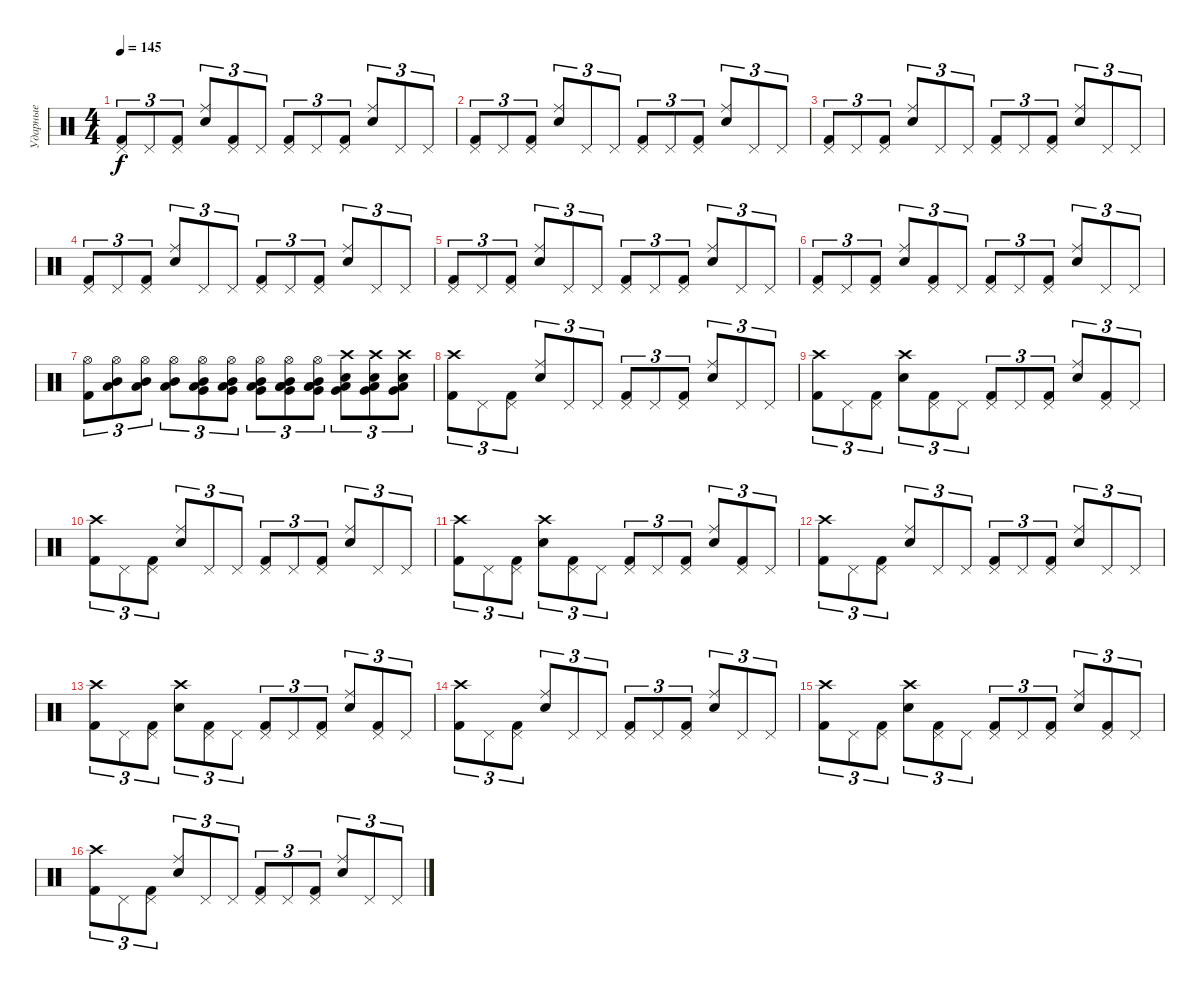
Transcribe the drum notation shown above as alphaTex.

\track ("Ударные" "Ударные") {instrument percussion}
\staff {score}
\articulation defaults
\ts (4 4)
\tempo 145
\clef neutral
\ks c
("Kick (hit) 2" "Pedal Hi-Hat (hit)").8{tu (3 2) dy f} "Pedal Hi-Hat (hit)".8{tu (3 2)} ("Kick (hit) 2" "Pedal Hi-Hat (hit)").8{tu (3 2)} ("Electric Snare (hit)" "Ride (middle)").8{tu (3 2)} ("Kick (hit) 2" "Pedal Hi-Hat (hit)").8{tu (3 2)} "Pedal Hi-Hat (hit)".8{tu (3 2)} ("Kick (hit) 2" "Pedal Hi-Hat (hit)").8{tu (3 2)} "Pedal Hi-Hat (hit)".8{tu (3 2)} ("Pedal Hi-Hat (hit)" "Kick (hit) 2").8{tu (3 2)} ("Electric Snare (hit)" "Ride (middle)").8{tu (3 2)} "Pedal Hi-Hat (hit)".8{tu (3 2)} "Pedal Hi-Hat (hit)".8{tu (3 2)} |
("Kick (hit) 2" "Pedal Hi-Hat (hit)").8{tu (3 2)} "Pedal Hi-Hat (hit)".8{tu (3 2)} ("Kick (hit) 2" "Pedal Hi-Hat (hit)").8{tu (3 2)} ("Electric Snare (hit)" "Ride (middle)").8{tu (3 2)} "Pedal Hi-Hat (hit)".8{tu (3 2)} "Pedal Hi-Hat (hit)".8{tu (3 2)} ("Kick (hit) 2" "Pedal Hi-Hat (hit)").8{tu (3 2)} "Pedal Hi-Hat (hit)".8{tu (3 2)} ("Pedal Hi-Hat (hit)" "Kick (hit) 2").8{tu (3 2)} ("Electric Snare (hit)" "Ride (middle)").8{tu (3 2)} "Pedal Hi-Hat (hit)".8{tu (3 2)} "Pedal Hi-Hat (hit)".8{tu (3 2)} |
("Kick (hit) 2" "Pedal Hi-Hat (hit)").8{tu (3 2)} "Pedal Hi-Hat (hit)".8{tu (3 2)} ("Kick (hit) 2" "Pedal Hi-Hat (hit)").8{tu (3 2)} ("Electric Snare (hit)" "Ride (middle)").8{tu (3 2)} "Pedal Hi-Hat (hit)".8{tu (3 2)} "Pedal Hi-Hat (hit)".8{tu (3 2)} ("Kick (hit) 2" "Pedal Hi-Hat (hit)").8{tu (3 2)} "Pedal Hi-Hat (hit)".8{tu (3 2)} ("Pedal Hi-Hat (hit)" "Kick (hit) 2").8{tu (3 2)} ("Electric Snare (hit)" "Ride (middle)").8{tu (3 2)} "Pedal Hi-Hat (hit)".8{tu (3 2)} "Pedal Hi-Hat (hit)".8{tu (3 2)} |
("Kick (hit) 2" "Pedal Hi-Hat (hit)").8{tu (3 2)} "Pedal Hi-Hat (hit)".8{tu (3 2)} ("Kick (hit) 2" "Pedal Hi-Hat (hit)").8{tu (3 2)} ("Electric Snare (hit)" "Ride (middle)").8{tu (3 2)} "Pedal Hi-Hat (hit)".8{tu (3 2)} "Pedal Hi-Hat (hit)".8{tu (3 2)} ("Kick (hit) 2" "Pedal Hi-Hat (hit)").8{tu (3 2)} "Pedal Hi-Hat (hit)".8{tu (3 2)} ("Pedal Hi-Hat (hit)" "Kick (hit) 2").8{tu (3 2)} ("Electric Snare (hit)" "Ride (middle)").8{tu (3 2)} "Pedal Hi-Hat (hit)".8{tu (3 2)} "Pedal Hi-Hat (hit)".8{tu (3 2)} |
("Kick (hit) 2" "Pedal Hi-Hat (hit)").8{tu (3 2)} "Pedal Hi-Hat (hit)".8{tu (3 2)} ("Kick (hit) 2" "Pedal Hi-Hat (hit)").8{tu (3 2)} ("Electric Snare (hit)" "Ride (middle)").8{tu (3 2)} "Pedal Hi-Hat (hit)".8{tu (3 2)} "Pedal Hi-Hat (hit)".8{tu (3 2)} ("Kick (hit) 2" "Pedal Hi-Hat (hit)").8{tu (3 2)} "Pedal Hi-Hat (hit)".8{tu (3 2)} ("Pedal Hi-Hat (hit)" "Kick (hit) 2").8{tu (3 2)} ("Electric Snare (hit)" "Ride (middle)").8{tu (3 2)} "Pedal Hi-Hat (hit)".8{tu (3 2)} "Pedal Hi-Hat (hit)".8{tu (3 2)} |
("Kick (hit) 2" "Pedal Hi-Hat (hit)").8{tu (3 2)} "Pedal Hi-Hat (hit)".8{tu (3 2)} ("Kick (hit) 2" "Pedal Hi-Hat (hit)").8{tu (3 2)} ("Electric Snare (hit)" "Ride (middle)").8{tu (3 2)} ("Kick (hit) 2" "Pedal Hi-Hat (hit)").8{tu (3 2)} "Pedal Hi-Hat (hit)".8{tu (3 2)} ("Kick (hit) 2" "Pedal Hi-Hat (hit)").8{tu (3 2)} "Pedal Hi-Hat (hit)".8{tu (3 2)} ("Pedal Hi-Hat (hit)" "Kick (hit) 2").8{tu (3 2)} ("Electric Snare (hit)" "Ride (middle)").8{tu (3 2)} "Pedal Hi-Hat (hit)".8{tu (3 2)} "Pedal Hi-Hat (hit)".8{tu (3 2)} |
("Kick (hit) 2" "Hi-Hat (open)").8{tu (3 2)} ("Low Tom (hit)" "Mid Tom (hit)" "Hi-Hat (open)").8{tu (3 2)} ("Mid Tom (hit)" "Low Tom (hit)" "Hi-Hat (open)").8{tu (3 2)} ("Low Tom (hit)" "Mid Tom (hit)" "Hi-Hat (open)").8{tu (3 2)} ("Low Tom (hit)" "Mid Tom (hit)" "Very Low Tom (hit)" "Hi-Hat (open)").8{tu (3 2)} ("Low Tom (hit)" "Mid Tom (hit)" "Very Low Tom (hit)" "Hi-Hat (open)").8{tu (3 2)} ("Low Tom (hit)" "Mid Tom (hit)" "Very Low Tom (hit)" "Hi-Hat (open)").8{tu (3 2)} ("Low Tom (hit)" "Very Low Tom (hit)" "Low Floor Tom (hit)" "Mid Tom (hit)" "Hi-Hat (open)").8{tu (3 2)} ("Low Floor Tom (hit)" "Very Low Tom (hit)" "Low Tom (hit)" "Mid Tom (hit)" "Hi-Hat (open)").8{tu (3 2)} ("Electric Snare (hit)" "Very Low Tom (hit)" "Low Tom (hit)" "Crash high (hit)").8{tu (3 2)} ("Electric Snare (hit)" "Very Low Tom (hit)" "Low Tom (hit)" "Crash high (hit)").8{tu (3 2)} ("Electric Snare (hit)" "Very Low Tom (hit)" "Low Tom (hit)" "Crash high (hit)").8{tu (3 2)} |
("Kick (hit) 2" "Crash high (hit)").8{tu (3 2)} "Pedal Hi-Hat (hit)".8{tu (3 2)} ("Kick (hit) 2" "Pedal Hi-Hat (hit)").8{tu (3 2)} ("Electric Snare (hit)" "Ride (middle)").8{tu (3 2)} "Pedal Hi-Hat (hit)".8{tu (3 2)} "Pedal Hi-Hat (hit)".8{tu (3 2)} ("Kick (hit) 2" "Pedal Hi-Hat (hit)").8{tu (3 2)} "Pedal Hi-Hat (hit)".8{tu (3 2)} ("Pedal Hi-Hat (hit)" "Kick (hit) 2").8{tu (3 2)} ("Electric Snare (hit)" "Ride (middle)").8{tu (3 2)} "Pedal Hi-Hat (hit)".8{tu (3 2)} "Pedal Hi-Hat (hit)".8{tu (3 2)} |
("Kick (hit) 2" "Crash high (hit)").8{tu (3 2)} "Pedal Hi-Hat (hit)".8{tu (3 2)} ("Kick (hit) 2" "Pedal Hi-Hat (hit)").8{tu (3 2)} ("Electric Snare (hit)" "Crash high (hit)").8{tu (3 2)} ("Kick (hit) 2" "Pedal Hi-Hat (hit)").8{tu (3 2)} "Pedal Hi-Hat (hit)".8{tu (3 2)} ("Kick (hit) 2" "Pedal Hi-Hat (hit)").8{tu (3 2)} "Pedal Hi-Hat (hit)".8{tu (3 2)} ("Pedal Hi-Hat (hit)" "Kick (hit) 2").8{tu (3 2)} ("Electric Snare (hit)" "Ride (middle)").8{tu (3 2)} ("Kick (hit) 2" "Pedal Hi-Hat (hit)").8{tu (3 2)} "Pedal Hi-Hat (hit)".8{tu (3 2)} |
("Kick (hit) 2" "Crash high (hit)").8{tu (3 2)} "Pedal Hi-Hat (hit)".8{tu (3 2)} ("Kick (hit) 2" "Pedal Hi-Hat (hit)").8{tu (3 2)} ("Electric Snare (hit)" "Ride (middle)").8{tu (3 2)} "Pedal Hi-Hat (hit)".8{tu (3 2)} "Pedal Hi-Hat (hit)".8{tu (3 2)} ("Kick (hit) 2" "Pedal Hi-Hat (hit)").8{tu (3 2)} "Pedal Hi-Hat (hit)".8{tu (3 2)} ("Pedal Hi-Hat (hit)" "Kick (hit) 2").8{tu (3 2)} ("Electric Snare (hit)" "Ride (middle)").8{tu (3 2)} "Pedal Hi-Hat (hit)".8{tu (3 2)} "Pedal Hi-Hat (hit)".8{tu (3 2)} |
("Kick (hit) 2" "Crash high (hit)").8{tu (3 2)} "Pedal Hi-Hat (hit)".8{tu (3 2)} ("Kick (hit) 2" "Pedal Hi-Hat (hit)").8{tu (3 2)} ("Electric Snare (hit)" "Crash high (hit)").8{tu (3 2)} ("Kick (hit) 2" "Pedal Hi-Hat (hit)").8{tu (3 2)} "Pedal Hi-Hat (hit)".8{tu (3 2)} ("Kick (hit) 2" "Pedal Hi-Hat (hit)").8{tu (3 2)} "Pedal Hi-Hat (hit)".8{tu (3 2)} ("Pedal Hi-Hat (hit)" "Kick (hit) 2").8{tu (3 2)} ("Electric Snare (hit)" "Ride (middle)").8{tu (3 2)} ("Kick (hit) 2" "Pedal Hi-Hat (hit)").8{tu (3 2)} "Pedal Hi-Hat (hit)".8{tu (3 2)} |
("Kick (hit) 2" "Crash high (hit)").8{tu (3 2)} "Pedal Hi-Hat (hit)".8{tu (3 2)} ("Kick (hit) 2" "Pedal Hi-Hat (hit)").8{tu (3 2)} ("Electric Snare (hit)" "Ride (middle)").8{tu (3 2)} "Pedal Hi-Hat (hit)".8{tu (3 2)} "Pedal Hi-Hat (hit)".8{tu (3 2)} ("Kick (hit) 2" "Pedal Hi-Hat (hit)").8{tu (3 2)} "Pedal Hi-Hat (hit)".8{tu (3 2)} ("Pedal Hi-Hat (hit)" "Kick (hit) 2").8{tu (3 2)} ("Electric Snare (hit)" "Ride (middle)").8{tu (3 2)} "Pedal Hi-Hat (hit)".8{tu (3 2)} "Pedal Hi-Hat (hit)".8{tu (3 2)} |
("Kick (hit) 2" "Crash high (hit)").8{tu (3 2)} "Pedal Hi-Hat (hit)".8{tu (3 2)} ("Kick (hit) 2" "Pedal Hi-Hat (hit)").8{tu (3 2)} ("Electric Snare (hit)" "Crash high (hit)").8{tu (3 2)} ("Kick (hit) 2" "Pedal Hi-Hat (hit)").8{tu (3 2)} "Pedal Hi-Hat (hit)".8{tu (3 2)} ("Kick (hit) 2" "Pedal Hi-Hat (hit)").8{tu (3 2)} "Pedal Hi-Hat (hit)".8{tu (3 2)} ("Pedal Hi-Hat (hit)" "Kick (hit) 2").8{tu (3 2)} ("Electric Snare (hit)" "Ride (middle)").8{tu (3 2)} ("Kick (hit) 2" "Pedal Hi-Hat (hit)").8{tu (3 2)} "Pedal Hi-Hat (hit)".8{tu (3 2)} |
("Kick (hit) 2" "Crash high (hit)").8{tu (3 2)} "Pedal Hi-Hat (hit)".8{tu (3 2)} ("Kick (hit) 2" "Pedal Hi-Hat (hit)").8{tu (3 2)} ("Electric Snare (hit)" "Ride (middle)").8{tu (3 2)} "Pedal Hi-Hat (hit)".8{tu (3 2)} "Pedal Hi-Hat (hit)".8{tu (3 2)} ("Kick (hit) 2" "Pedal Hi-Hat (hit)").8{tu (3 2)} "Pedal Hi-Hat (hit)".8{tu (3 2)} ("Pedal Hi-Hat (hit)" "Kick (hit) 2").8{tu (3 2)} ("Electric Snare (hit)" "Ride (middle)").8{tu (3 2)} "Pedal Hi-Hat (hit)".8{tu (3 2)} "Pedal Hi-Hat (hit)".8{tu (3 2)} |
("Kick (hit) 2" "Crash high (hit)").8{tu (3 2)} "Pedal Hi-Hat (hit)".8{tu (3 2)} ("Kick (hit) 2" "Pedal Hi-Hat (hit)").8{tu (3 2)} ("Electric Snare (hit)" "Crash high (hit)").8{tu (3 2)} ("Kick (hit) 2" "Pedal Hi-Hat (hit)").8{tu (3 2)} "Pedal Hi-Hat (hit)".8{tu (3 2)} ("Kick (hit) 2" "Pedal Hi-Hat (hit)").8{tu (3 2)} "Pedal Hi-Hat (hit)".8{tu (3 2)} ("Pedal Hi-Hat (hit)" "Kick (hit) 2").8{tu (3 2)} ("Electric Snare (hit)" "Ride (middle)").8{tu (3 2)} ("Kick (hit) 2" "Pedal Hi-Hat (hit)").8{tu (3 2)} "Pedal Hi-Hat (hit)".8{tu (3 2)} |
("Kick (hit) 2" "Crash high (hit)").8{tu (3 2)} "Pedal Hi-Hat (hit)".8{tu (3 2)} ("Kick (hit) 2" "Pedal Hi-Hat (hit)").8{tu (3 2)} ("Electric Snare (hit)" "Ride (middle)").8{tu (3 2)} "Pedal Hi-Hat (hit)".8{tu (3 2)} "Pedal Hi-Hat (hit)".8{tu (3 2)} ("Kick (hit) 2" "Pedal Hi-Hat (hit)").8{tu (3 2)} "Pedal Hi-Hat (hit)".8{tu (3 2)} ("Pedal Hi-Hat (hit)" "Kick (hit) 2").8{tu (3 2)} ("Electric Snare (hit)" "Ride (middle)").8{tu (3 2)} "Pedal Hi-Hat (hit)".8{tu (3 2)} "Pedal Hi-Hat (hit)".8{tu (3 2)}
